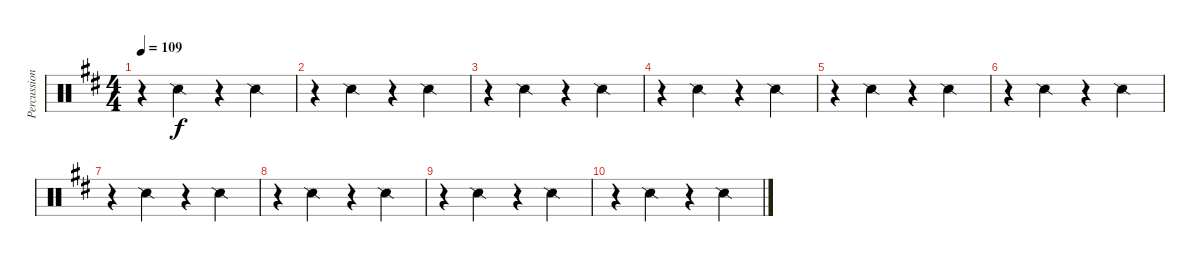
\track ("Percussions" "Percussion") {instrument percussion}
\staff {score}
\articulation defaults
\ts (4 4)
\tempo 109
\clef neutral
\ks d
r.4{dy f} "Snare (side stick) 2".4 r.4 "Snare (side stick) 2".4 |
r.4 "Snare (side stick) 2".4 r.4 "Snare (side stick) 2".4 |
r.4 "Snare (side stick) 2".4 r.4 "Snare (side stick) 2".4 |
r.4 "Snare (side stick) 2".4 r.4 "Snare (side stick) 2".4 |
r.4 "Snare (side stick) 2".4 r.4 "Snare (side stick) 2".4 |
r.4 "Snare (side stick) 2".4 r.4 "Snare (side stick) 2".4 |
r.4 "Snare (side stick) 2".4 r.4 "Snare (side stick) 2".4 |
r.4 "Snare (side stick) 2".4 r.4 "Snare (side stick) 2".4 |
r.4 "Snare (side stick) 2".4 r.4 "Snare (side stick) 2".4 |
r.4 "Snare (side stick) 2".4 r.4 "Snare (side stick) 2".4
